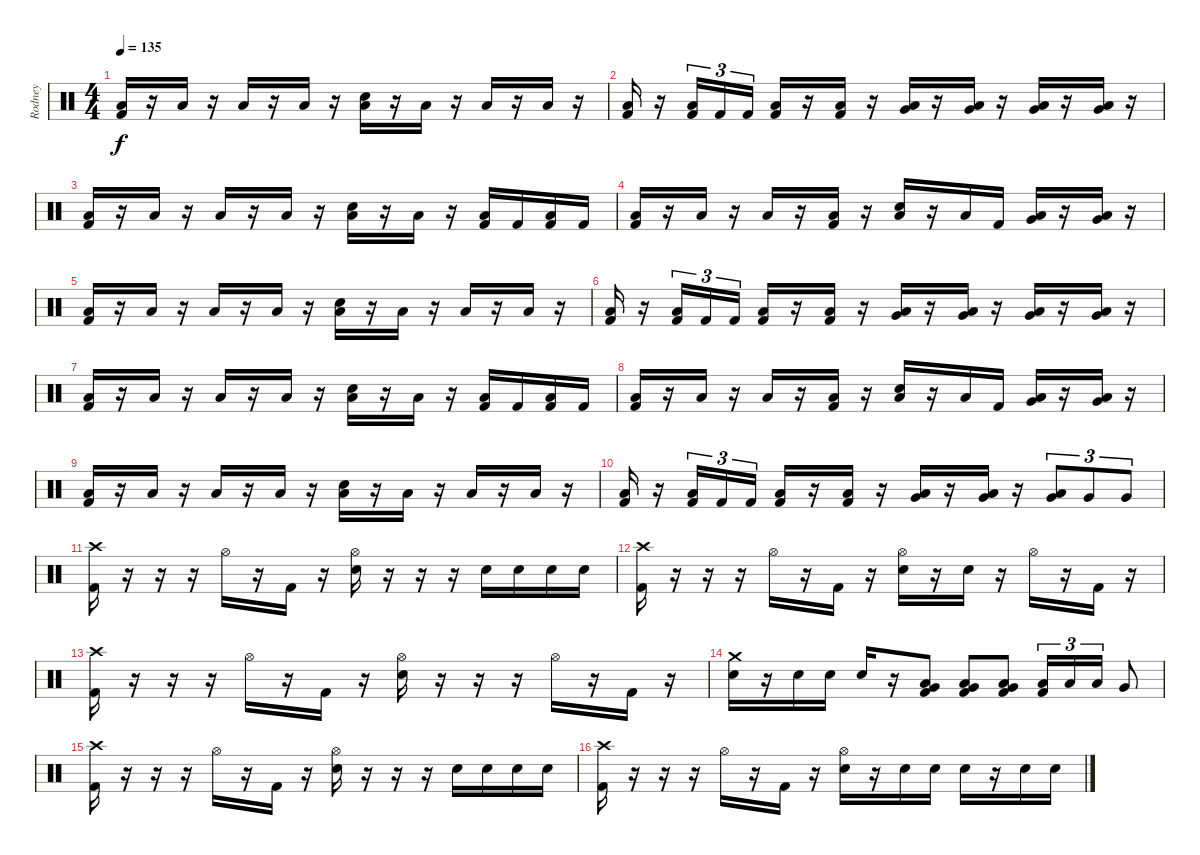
\track ("Rodney" "Rodney") {instrument percussion}
\staff {score}
\articulation defaults
\ts (4 4)
\tempo 135
\clef neutral
\ks c
("Low Floor Tom (hit)" "Kick (hit) 2").16{dy f} r.16 "Low Floor Tom (hit)".16 r.16 "Low Floor Tom (hit)".16 r.16 "Low Floor Tom (hit)".16 r.16 ("Snare (hit) 2" "Low Floor Tom (hit)").16 r.16 "Low Floor Tom (hit)".16 r.16 "Low Floor Tom (hit)".16 r.16 "Low Floor Tom (hit)".16 r.16 |
("Low Floor Tom (hit)" "Kick (hit) 2").16 r.16 ("Low Floor Tom (hit)" "Kick (hit) 2").16{tu (3 2)} "Kick (hit) 2".16{tu (3 2)} "Kick (hit) 2".16{tu (3 2)} ("Low Floor Tom (hit)" "Kick (hit) 2").16 r.16 ("Low Floor Tom (hit)" "Kick (hit) 2").16 r.16 ("Very Low Tom (hit)" "Low Floor Tom (hit)").16 r.16 ("Very Low Tom (hit)" "Low Floor Tom (hit)").16 r.16 ("Low Tom (hit)" "Very Low Tom (hit)").16 r.16 ("Low Tom (hit)" "Very Low Tom (hit)").16 r.16 |
("Low Floor Tom (hit)" "Kick (hit) 2").16 r.16 "Low Floor Tom (hit)".16 r.16 "Low Floor Tom (hit)".16 r.16 "Low Floor Tom (hit)".16 r.16 ("Snare (hit) 2" "Low Floor Tom (hit)").16 r.16 "Low Floor Tom (hit)".16 r.16 ("Low Floor Tom (hit)" "Kick (hit) 2").16 "Kick (hit) 2".16 ("Low Floor Tom (hit)" "Kick (hit) 2").16 "Kick (hit) 2".16 |
("Low Floor Tom (hit)" "Kick (hit) 2").16 r.16 "Low Floor Tom (hit)".16 r.16 "Low Floor Tom (hit)".16 r.16 ("Low Floor Tom (hit)" "Kick (hit) 2").16 r.16 ("Snare (hit) 2" "Low Floor Tom (hit)").16 r.16 "Low Floor Tom (hit)".16 "Kick (hit) 2".16 ("Low Tom (hit)" "Very Low Tom (hit)").16 r.16 ("Very Low Tom (hit)" "Low Floor Tom (hit)").16 r.16 |
("Low Floor Tom (hit)" "Kick (hit) 2").16 r.16 "Low Floor Tom (hit)".16 r.16 "Low Floor Tom (hit)".16 r.16 "Low Floor Tom (hit)".16 r.16 ("Snare (hit) 2" "Low Floor Tom (hit)").16 r.16 "Low Floor Tom (hit)".16 r.16 "Low Floor Tom (hit)".16 r.16 "Low Floor Tom (hit)".16 r.16 |
("Low Floor Tom (hit)" "Kick (hit) 2").16 r.16 ("Low Floor Tom (hit)" "Kick (hit) 2").16{tu (3 2)} "Kick (hit) 2".16{tu (3 2)} "Kick (hit) 2".16{tu (3 2)} ("Low Floor Tom (hit)" "Kick (hit) 2").16 r.16 ("Low Floor Tom (hit)" "Kick (hit) 2").16 r.16 ("Very Low Tom (hit)" "Low Floor Tom (hit)").16 r.16 ("Very Low Tom (hit)" "Low Floor Tom (hit)").16 r.16 ("Low Tom (hit)" "Very Low Tom (hit)").16 r.16 ("Low Tom (hit)" "Very Low Tom (hit)").16 r.16 |
("Low Floor Tom (hit)" "Kick (hit) 2").16 r.16 "Low Floor Tom (hit)".16 r.16 "Low Floor Tom (hit)".16 r.16 "Low Floor Tom (hit)".16 r.16 ("Snare (hit) 2" "Low Floor Tom (hit)").16 r.16 "Low Floor Tom (hit)".16 r.16 ("Low Floor Tom (hit)" "Kick (hit) 2").16 "Kick (hit) 2".16 ("Low Floor Tom (hit)" "Kick (hit) 2").16 "Kick (hit) 2".16 |
("Low Floor Tom (hit)" "Kick (hit) 2").16 r.16 "Low Floor Tom (hit)".16 r.16 "Low Floor Tom (hit)".16 r.16 ("Low Floor Tom (hit)" "Kick (hit) 2").16 r.16 ("Snare (hit) 2" "Low Floor Tom (hit)").16 r.16 "Low Floor Tom (hit)".16 "Kick (hit) 2".16 ("Low Tom (hit)" "Very Low Tom (hit)").16 r.16 ("Very Low Tom (hit)" "Low Floor Tom (hit)").16 r.16 |
("Low Floor Tom (hit)" "Kick (hit) 2").16 r.16 "Low Floor Tom (hit)".16 r.16 "Low Floor Tom (hit)".16 r.16 "Low Floor Tom (hit)".16 r.16 ("Snare (hit) 2" "Low Floor Tom (hit)").16 r.16 "Low Floor Tom (hit)".16 r.16 "Low Floor Tom (hit)".16 r.16 "Low Floor Tom (hit)".16 r.16 |
("Low Floor Tom (hit)" "Kick (hit) 2").16 r.16 ("Low Floor Tom (hit)" "Kick (hit) 2").16{tu (3 2)} "Kick (hit) 2".16{tu (3 2)} "Kick (hit) 2".16{tu (3 2)} ("Low Floor Tom (hit)" "Kick (hit) 2").16 r.16 ("Low Floor Tom (hit)" "Kick (hit) 2").16 r.16 ("Very Low Tom (hit)" "Low Floor Tom (hit)").16 r.16 ("Very Low Tom (hit)" "Low Floor Tom (hit)").16 r.16 ("Low Tom (hit)" "Very Low Tom (hit)").8{tu (3 2)} "Very Low Tom (hit)".8{tu (3 2)} "Very Low Tom (hit)".8{tu (3 2)} |
("Crash high (hit)" "Kick (hit) 2").16 r.16 r.16 r.16 "Hi-Hat (open)".16 r.16 "Kick (hit) 2".16 r.16 ("Hi-Hat (open)" "Snare (hit) 2").16 r.16 r.16 r.16 "Snare (hit) 2".16 "Snare (hit) 2".16 "Snare (hit) 2".16 "Snare (hit) 2".16 |
("Crash high (hit)" "Kick (hit) 2").16 r.16 r.16 r.16 "Hi-Hat (open)".16 r.16 "Kick (hit) 2".16 r.16 ("Hi-Hat (open)" "Snare (hit) 2").16 r.16 "Snare (hit) 2".16 r.16 "Hi-Hat (open)".16 r.16 "Kick (hit) 2".16 r.16 |
("Crash high (hit)" "Kick (hit) 2").16 r.16 r.16 r.16 "Hi-Hat (open)".16 r.16 "Kick (hit) 2".16 r.16 ("Hi-Hat (open)" "Snare (hit) 2").16 r.16 r.16 r.16 "Hi-Hat (open)".16 r.16 "Kick (hit) 2".16 r.16 |
("Crash medium (hit)" "Snare (hit) 2").16 r.16 "Snare (hit) 2".16 "Snare (hit) 2".16 "Snare (hit) 2".16 r.16 ("Low Tom (hit)" "Very Low Tom (hit)" "Kick (hit) 2").8 ("Low Tom (hit)" "Very Low Tom (hit)" "Kick (hit) 2").8 ("Low Tom (hit)" "Very Low Tom (hit)" "Kick (hit) 2").8 ("Low Tom (hit)" "Kick (hit) 2").16{tu (3 2)} "Low Tom (hit)".16{tu (3 2)} "Low Tom (hit)".16{tu (3 2)} "Very Low Tom (hit)".8 |
("Crash high (hit)" "Kick (hit) 2").16 r.16 r.16 r.16 "Hi-Hat (open)".16 r.16 "Kick (hit) 2".16 r.16 ("Hi-Hat (open)" "Snare (hit) 2").16 r.16 r.16 r.16 "Snare (hit) 2".16 "Snare (hit) 2".16 "Snare (hit) 2".16 "Snare (hit) 2".16 |
("Crash high (hit)" "Kick (hit) 2").16 r.16 r.16 r.16 "Hi-Hat (open)".16 r.16 "Kick (hit) 2".16 r.16 ("Hi-Hat (open)" "Snare (hit) 2").16 r.16 "Snare (hit) 2".16 "Snare (hit) 2".16 "Snare (hit) 2".16 r.16 "Snare (hit) 2".16 "Snare (hit) 2".16
